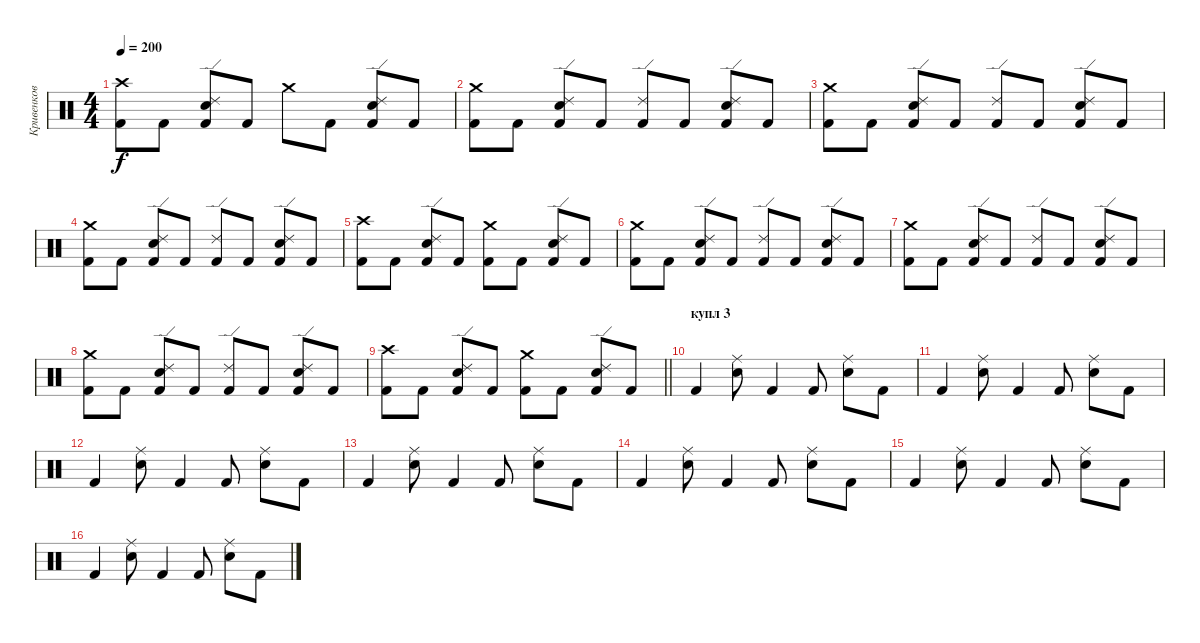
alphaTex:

\track ("Кривенков" "Кривенков") {instrument percussion}
\staff {score}
\articulation defaults
\ts (4 4)
\tempo 200
\clef neutral
\ks c
("Crash high (hit)" "Kick (hit) 2").8{dy f} "Kick (hit) 2".8 ("Ride (edge) 2" "Electric Snare (hit)" "Kick (hit) 2").8 "Kick (hit) 2".8 "Crash medium (hit)".8 "Kick (hit) 2".8 ("Ride (edge) 2" "Electric Snare (hit)" "Kick (hit) 2").8 "Kick (hit) 2".8 |
("Crash medium (hit)" "Kick (hit) 2").8 "Kick (hit) 2".8 ("Ride (edge) 2" "Electric Snare (hit)" "Kick (hit) 2").8 "Kick (hit) 2".8 ("Ride (edge) 2" "Kick (hit) 2").8 "Kick (hit) 2".8 ("Ride (edge) 2" "Electric Snare (hit)" "Kick (hit) 2").8 "Kick (hit) 2".8 |
("Crash medium (hit)" "Kick (hit) 2").8 "Kick (hit) 2".8 ("Ride (edge) 2" "Electric Snare (hit)" "Kick (hit) 2").8 "Kick (hit) 2".8 ("Ride (edge) 2" "Kick (hit) 2").8 "Kick (hit) 2".8 ("Ride (edge) 2" "Electric Snare (hit)" "Kick (hit) 2").8 "Kick (hit) 2".8 |
("Crash medium (hit)" "Kick (hit) 2").8 "Kick (hit) 2".8 ("Ride (edge) 2" "Electric Snare (hit)" "Kick (hit) 2").8 "Kick (hit) 2".8 ("Ride (edge) 2" "Kick (hit) 2").8 "Kick (hit) 2".8 ("Ride (edge) 2" "Electric Snare (hit)" "Kick (hit) 2").8 "Kick (hit) 2".8 |
("Crash high (hit)" "Kick (hit) 2").8 "Kick (hit) 2".8 ("Ride (edge) 2" "Electric Snare (hit)" "Kick (hit) 2").8 "Kick (hit) 2".8 ("Crash medium (hit)" "Kick (hit) 2").8 "Kick (hit) 2".8 ("Ride (edge) 2" "Electric Snare (hit)" "Kick (hit) 2").8 "Kick (hit) 2".8 |
("Crash medium (hit)" "Kick (hit) 2").8 "Kick (hit) 2".8 ("Ride (edge) 2" "Electric Snare (hit)" "Kick (hit) 2").8 "Kick (hit) 2".8 ("Ride (edge) 2" "Kick (hit) 2").8 "Kick (hit) 2".8 ("Ride (edge) 2" "Electric Snare (hit)" "Kick (hit) 2").8 "Kick (hit) 2".8 |
("Crash medium (hit)" "Kick (hit) 2").8 "Kick (hit) 2".8 ("Ride (edge) 2" "Electric Snare (hit)" "Kick (hit) 2").8 "Kick (hit) 2".8 ("Ride (edge) 2" "Kick (hit) 2").8 "Kick (hit) 2".8 ("Ride (edge) 2" "Electric Snare (hit)" "Kick (hit) 2").8 "Kick (hit) 2".8 |
("Crash medium (hit)" "Kick (hit) 2").8 "Kick (hit) 2".8 ("Ride (edge) 2" "Electric Snare (hit)" "Kick (hit) 2").8 "Kick (hit) 2".8 ("Ride (edge) 2" "Kick (hit) 2").8 "Kick (hit) 2".8 ("Ride (edge) 2" "Electric Snare (hit)" "Kick (hit) 2").8 "Kick (hit) 2".8 |
\barLineRight lightlight
("Crash high (hit)" "Kick (hit) 2").8 "Kick (hit) 2".8 ("Ride (edge) 2" "Electric Snare (hit)" "Kick (hit) 2").8 "Kick (hit) 2".8 ("Crash medium (hit)" "Kick (hit) 2").8 "Kick (hit) 2".8 ("Ride (edge) 2" "Electric Snare (hit)" "Kick (hit) 2").8 "Kick (hit) 2".8 |
\section ("" "купл 3")
"Kick (hit) 2".4 ("Ride (middle)" "Electric Snare (hit)").8 "Kick (hit) 2".4 "Kick (hit) 2".8 ("Ride (middle)" "Electric Snare (hit)").8 "Kick (hit) 2".8 |
"Kick (hit) 2".4 ("Ride (middle)" "Electric Snare (hit)").8 "Kick (hit) 2".4 "Kick (hit) 2".8 ("Ride (middle)" "Electric Snare (hit)").8 "Kick (hit) 2".8 |
"Kick (hit) 2".4 ("Ride (middle)" "Electric Snare (hit)").8 "Kick (hit) 2".4 "Kick (hit) 2".8 ("Ride (middle)" "Electric Snare (hit)").8 "Kick (hit) 2".8 |
"Kick (hit) 2".4 ("Ride (middle)" "Electric Snare (hit)").8 "Kick (hit) 2".4 "Kick (hit) 2".8 ("Ride (middle)" "Electric Snare (hit)").8 "Kick (hit) 2".8 |
"Kick (hit) 2".4 ("Ride (middle)" "Electric Snare (hit)").8 "Kick (hit) 2".4 "Kick (hit) 2".8 ("Ride (middle)" "Electric Snare (hit)").8 "Kick (hit) 2".8 |
"Kick (hit) 2".4 ("Ride (middle)" "Electric Snare (hit)").8 "Kick (hit) 2".4 "Kick (hit) 2".8 ("Ride (middle)" "Electric Snare (hit)").8 "Kick (hit) 2".8 |
"Kick (hit) 2".4 ("Ride (middle)" "Electric Snare (hit)").8 "Kick (hit) 2".4 "Kick (hit) 2".8 ("Ride (middle)" "Electric Snare (hit)").8 "Kick (hit) 2".8
